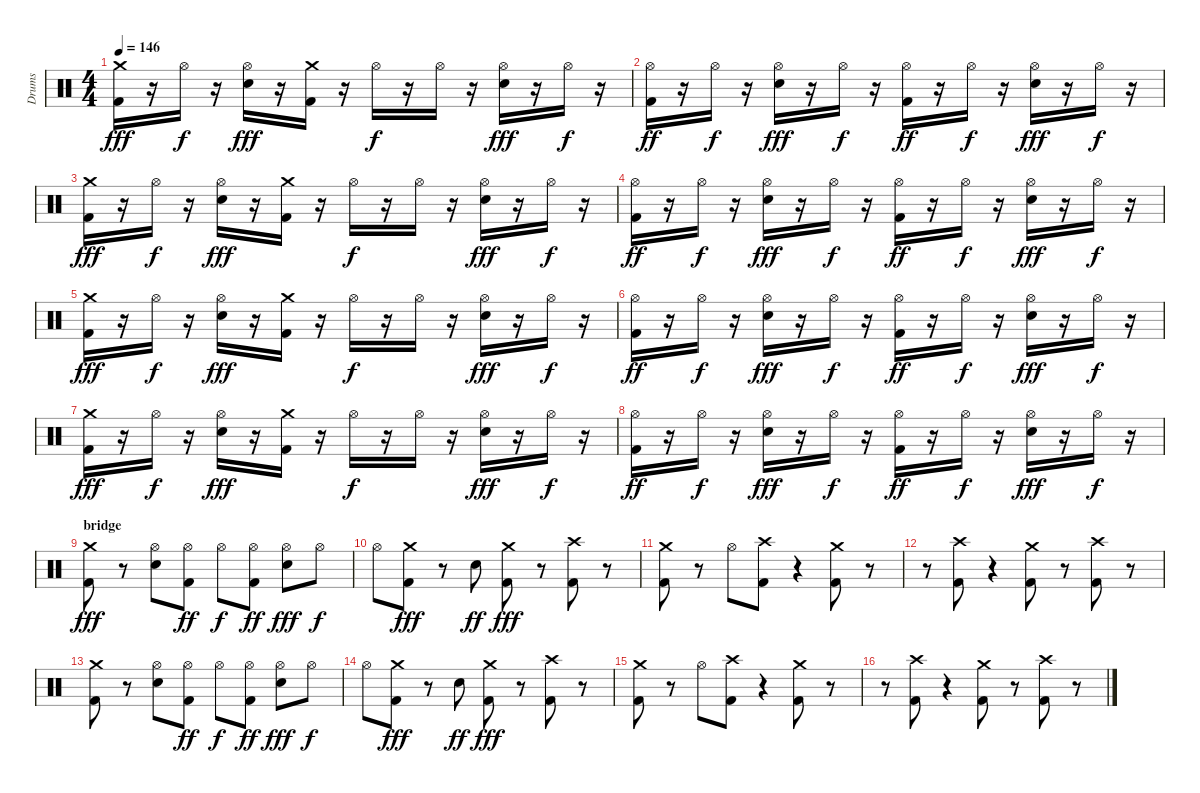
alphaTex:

\track ("Drums" "Drums") {instrument percussion}
\staff {score}
\articulation defaults
\ts (4 4)
\tempo 146
\clef neutral
\ks c
("Kick (hit) 2" "Crash medium (hit)").16{dy fff} r.16 "Hi-Hat (open)".16{dy f} r.16 ("Snare (hit) 2" "Hi-Hat (open)").16{dy fff} r.16 ("Kick (hit) 2" "Crash medium (hit)").16 r.16 "Hi-Hat (open)".16{dy f} r.16 "Hi-Hat (open)".16 r.16 ("Snare (hit) 2" "Hi-Hat (open)").16{dy fff} r.16 "Hi-Hat (open)".16{dy f} r.16 |
("Kick (hit) 2" "Hi-Hat (open)").16{dy ff} r.16 "Hi-Hat (open)".16{dy f} r.16 ("Snare (hit) 2" "Hi-Hat (open)").16{dy fff} r.16 "Hi-Hat (open)".16{dy f} r.16 ("Kick (hit) 2" "Hi-Hat (open)").16{dy ff} r.16 "Hi-Hat (open)".16{dy f} r.16 ("Snare (hit) 2" "Hi-Hat (open)").16{dy fff} r.16 "Hi-Hat (open)".16{dy f} r.16 |
("Kick (hit) 2" "Crash medium (hit)").16{dy fff} r.16 "Hi-Hat (open)".16{dy f} r.16 ("Snare (hit) 2" "Hi-Hat (open)").16{dy fff} r.16 ("Kick (hit) 2" "Crash medium (hit)").16 r.16 "Hi-Hat (open)".16{dy f} r.16 "Hi-Hat (open)".16 r.16 ("Snare (hit) 2" "Hi-Hat (open)").16{dy fff} r.16 "Hi-Hat (open)".16{dy f} r.16 |
("Kick (hit) 2" "Hi-Hat (open)").16{dy ff} r.16 "Hi-Hat (open)".16{dy f} r.16 ("Snare (hit) 2" "Hi-Hat (open)").16{dy fff} r.16 "Hi-Hat (open)".16{dy f} r.16 ("Kick (hit) 2" "Hi-Hat (open)").16{dy ff} r.16 "Hi-Hat (open)".16{dy f} r.16 ("Snare (hit) 2" "Hi-Hat (open)").16{dy fff} r.16 "Hi-Hat (open)".16{dy f} r.16 |
("Kick (hit) 2" "Crash medium (hit)").16{dy fff} r.16 "Hi-Hat (open)".16{dy f} r.16 ("Snare (hit) 2" "Hi-Hat (open)").16{dy fff} r.16 ("Kick (hit) 2" "Crash medium (hit)").16 r.16 "Hi-Hat (open)".16{dy f} r.16 "Hi-Hat (open)".16 r.16 ("Snare (hit) 2" "Hi-Hat (open)").16{dy fff} r.16 "Hi-Hat (open)".16{dy f} r.16 |
("Kick (hit) 2" "Hi-Hat (open)").16{dy ff} r.16 "Hi-Hat (open)".16{dy f} r.16 ("Snare (hit) 2" "Hi-Hat (open)").16{dy fff} r.16 "Hi-Hat (open)".16{dy f} r.16 ("Kick (hit) 2" "Hi-Hat (open)").16{dy ff} r.16 "Hi-Hat (open)".16{dy f} r.16 ("Snare (hit) 2" "Hi-Hat (open)").16{dy fff} r.16 "Hi-Hat (open)".16{dy f} r.16 |
("Kick (hit) 2" "Crash medium (hit)").16{dy fff} r.16 "Hi-Hat (open)".16{dy f} r.16 ("Snare (hit) 2" "Hi-Hat (open)").16{dy fff} r.16 ("Kick (hit) 2" "Crash medium (hit)").16 r.16 "Hi-Hat (open)".16{dy f} r.16 "Hi-Hat (open)".16 r.16 ("Snare (hit) 2" "Hi-Hat (open)").16{dy fff} r.16 "Hi-Hat (open)".16{dy f} r.16 |
("Kick (hit) 2" "Hi-Hat (open)").16{dy ff} r.16 "Hi-Hat (open)".16{dy f} r.16 ("Snare (hit) 2" "Hi-Hat (open)").16{dy fff} r.16 "Hi-Hat (open)".16{dy f} r.16 ("Kick (hit) 2" "Hi-Hat (open)").16{dy ff} r.16 "Hi-Hat (open)".16{dy f} r.16 ("Snare (hit) 2" "Hi-Hat (open)").16{dy fff} r.16 "Hi-Hat (open)".16{dy f} r.16 |
\section ("" "bridge")
("Kick (hit) 2" "Crash medium (hit)").8{dy fff} r.8 ("Snare (hit) 2" "Hi-Hat (open)").8 ("Kick (hit) 2" "Hi-Hat (open)").8{dy ff} "Hi-Hat (open)".8{dy f} ("Kick (hit) 2" "Hi-Hat (open)").8{dy ff} ("Snare (hit) 2" "Hi-Hat (open)").8{dy fff} "Hi-Hat (open)".8{dy f} |
"Hi-Hat (open)".8 ("Kick (hit) 2" "Crash medium (hit)").8{dy fff} r.8 "Snare (hit) 2".8{dy ff} ("Kick (hit) 2" "Crash medium (hit)").8{dy fff} r.8 ("Kick (hit) 2" "Crash high (hit)").8 r.8 |
("Kick (hit) 2" "Crash medium (hit)").8 r.8 "Hi-Hat (open)".8 ("Kick (hit) 2" "Crash high (hit)").8 r.4 ("Kick (hit) 2" "Crash medium (hit)").8 r.8 |
r.8 ("Kick (hit) 2" "Crash high (hit)").8 r.4 ("Kick (hit) 2" "Crash medium (hit)").8 r.8 ("Kick (hit) 2" "Crash high (hit)").8 r.8 |
("Kick (hit) 2" "Crash medium (hit)").8 r.8 ("Snare (hit) 2" "Hi-Hat (open)").8 ("Kick (hit) 2" "Hi-Hat (open)").8{dy ff} "Hi-Hat (open)".8{dy f} ("Kick (hit) 2" "Hi-Hat (open)").8{dy ff} ("Snare (hit) 2" "Hi-Hat (open)").8{dy fff} "Hi-Hat (open)".8{dy f} |
"Hi-Hat (open)".8 ("Kick (hit) 2" "Crash medium (hit)").8{dy fff} r.8 "Snare (hit) 2".8{dy ff} ("Kick (hit) 2" "Crash medium (hit)").8{dy fff} r.8 ("Kick (hit) 2" "Crash high (hit)").8 r.8 |
("Kick (hit) 2" "Crash medium (hit)").8 r.8 "Hi-Hat (open)".8 ("Kick (hit) 2" "Crash high (hit)").8 r.4 ("Kick (hit) 2" "Crash medium (hit)").8 r.8 |
r.8 ("Kick (hit) 2" "Crash high (hit)").8 r.4 ("Kick (hit) 2" "Crash medium (hit)").8 r.8 ("Kick (hit) 2" "Crash high (hit)").8 r.8
